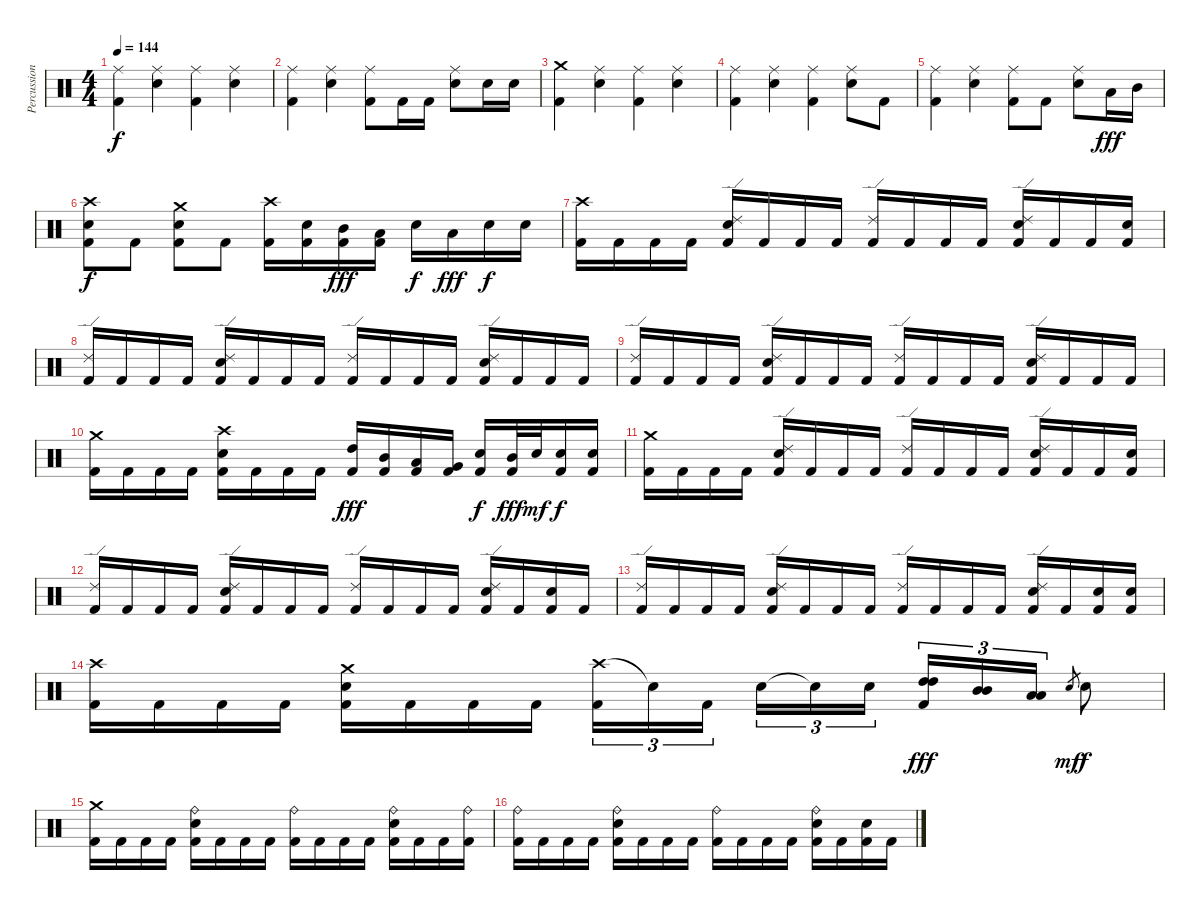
\track ("Percussion" "Percussion") {instrument percussion}
\staff {score}
\articulation defaults
\ts (4 4)
\tempo 144
\clef neutral
\ks c
("Ride (middle)" "Kick (hit) 2").4{dy f} ("Ride (middle)" "Snare (hit) 2").4 ("Ride (middle)" "Kick (hit) 2").4 ("Ride (middle)" "Snare (hit) 2").4 |
("Ride (middle)" "Kick (hit) 2").4 ("Ride (middle)" "Snare (hit) 2").4 ("Ride (middle)" "Kick (hit) 2").8 "Kick (hit) 2".16 "Kick (hit) 2".16 ("Ride (middle)" "Snare (hit) 2").8 "Snare (hit) 2".16 "Snare (hit) 2".16 |
("Crash medium (hit)" "Kick (hit) 2").4 ("Ride (middle)" "Snare (hit) 2").4 ("Ride (middle)" "Kick (hit) 2").4 ("Ride (middle)" "Snare (hit) 2").4 |
("Ride (middle)" "Kick (hit) 2").4 ("Ride (middle)" "Snare (hit) 2").4 ("Ride (middle)" "Kick (hit) 2").4 ("Ride (middle)" "Snare (hit) 2").8 "Kick (hit) 2".8 |
("Ride (middle)" "Kick (hit) 2").4 ("Ride (middle)" "Snare (hit) 2").4 ("Ride (middle)" "Kick (hit) 2").8 "Kick (hit) 2".8 ("Ride (middle)" "Snare (hit) 2").8 "Low Tom (hit)".16{dy fff} "Mid Tom (hit)".16 |
("Crash high (hit)" "Snare (hit) 2" "Kick (hit) 2").8{dy f} "Kick (hit) 2".8 ("Crash medium (hit)" "Snare (hit) 2" "Kick (hit) 2").8 "Kick (hit) 2".8 ("Crash high (hit)" "Kick (hit) 2").16 ("Snare (hit) 2" "Kick (hit) 2").16 ("Mid Tom (hit)" "Kick (hit) 2").16{dy fff} ("Low Tom (hit)" "Kick (hit) 2").16 "Snare (hit) 2".16{dy f} "Low Tom (hit)".16{dy fff} "Snare (hit) 2".16{dy f} "Snare (hit) 2".16 |
\section ("" "")
("Crash high (hit)" "Kick (hit) 2").16 "Kick (hit) 2".16 "Kick (hit) 2".16 "Kick (hit) 2".16 ("Ride (edge) 2" "Snare (hit) 2" "Kick (hit) 2").16 "Kick (hit) 2".16 "Kick (hit) 2".16 "Kick (hit) 2".16 ("Ride (edge) 2" "Kick (hit) 2").16 "Kick (hit) 2".16 "Kick (hit) 2".16 "Kick (hit) 2".16 ("Ride (edge) 2" "Snare (hit) 2" "Kick (hit) 2").16 "Kick (hit) 2".16 "Kick (hit) 2".16 ("Snare (hit) 2" "Kick (hit) 2").16 |
("Ride (edge) 2" "Kick (hit) 2").16 "Kick (hit) 2".16 "Kick (hit) 2".16 "Kick (hit) 2".16 ("Ride (edge) 2" "Snare (hit) 2" "Kick (hit) 2").16 "Kick (hit) 2".16 "Kick (hit) 2".16 "Kick (hit) 2".16 ("Ride (edge) 2" "Kick (hit) 2").16 "Kick (hit) 2".16 "Kick (hit) 2".16 "Kick (hit) 2".16 ("Ride (edge) 2" "Snare (hit) 2" "Kick (hit) 2").16 "Kick (hit) 2".16 "Kick (hit) 2".16 "Kick (hit) 2".16 |
("Ride (edge) 2" "Kick (hit) 2").16 "Kick (hit) 2".16 "Kick (hit) 2".16 "Kick (hit) 2".16 ("Ride (edge) 2" "Snare (hit) 2" "Kick (hit) 2").16 "Kick (hit) 2".16 "Kick (hit) 2".16 "Kick (hit) 2".16 ("Ride (edge) 2" "Kick (hit) 2").16 "Kick (hit) 2".16 "Kick (hit) 2".16 "Kick (hit) 2".16 ("Ride (edge) 2" "Snare (hit) 2" "Kick (hit) 2").16 "Kick (hit) 2".16 "Kick (hit) 2".16 "Kick (hit) 2".16 |
("Crash medium (hit)" "Kick (hit) 2").16 "Kick (hit) 2".16 "Kick (hit) 2".16 "Kick (hit) 2".16 ("Crash high (hit)" "Snare (hit) 2" "Kick (hit) 2").16 "Kick (hit) 2".16 "Kick (hit) 2".16 "Kick (hit) 2".16 ("High Tom (hit)" "Kick (hit) 2").16{dy fff} ("Mid Tom (hit)" "Kick (hit) 2").16 ("Low Tom (hit)" "Kick (hit) 2").16 ("Very Low Tom (hit)" "Kick (hit) 2").16 ("Snare (hit) 2" "Kick (hit) 2").16{dy f} ("Mid Tom (hit)" "Kick (hit) 2").32{dy fff} "Snare (hit) 2".32{dy mf} ("Snare (hit) 2" "Kick (hit) 2").16{dy f} ("Snare (hit) 2" "Kick (hit) 2").16 |
("Crash medium (hit)" "Kick (hit) 2").16 "Kick (hit) 2".16 "Kick (hit) 2".16 "Kick (hit) 2".16 ("Ride (edge) 2" "Snare (hit) 2" "Kick (hit) 2").16 "Kick (hit) 2".16 "Kick (hit) 2".16 "Kick (hit) 2".16 ("Ride (edge) 2" "Kick (hit) 2").16 "Kick (hit) 2".16 "Kick (hit) 2".16 "Kick (hit) 2".16 ("Ride (edge) 2" "Snare (hit) 2" "Kick (hit) 2").16 "Kick (hit) 2".16 "Kick (hit) 2".16 ("Snare (hit) 2" "Kick (hit) 2").16 |
("Ride (edge) 2" "Kick (hit) 2").16 "Kick (hit) 2".16 "Kick (hit) 2".16 "Kick (hit) 2".16 ("Ride (edge) 2" "Snare (hit) 2" "Kick (hit) 2").16 "Kick (hit) 2".16 "Kick (hit) 2".16 "Kick (hit) 2".16 ("Ride (edge) 2" "Kick (hit) 2").16 "Kick (hit) 2".16 "Kick (hit) 2".16 "Kick (hit) 2".16 ("Ride (edge) 2" "Snare (hit) 2" "Kick (hit) 2").16 "Kick (hit) 2".16 ("Snare (hit) 2" "Kick (hit) 2").16 "Kick (hit) 2".16 |
("Ride (edge) 2" "Kick (hit) 2").16 "Kick (hit) 2".16 "Kick (hit) 2".16 "Kick (hit) 2".16 ("Ride (edge) 2" "Snare (hit) 2" "Kick (hit) 2").16 "Kick (hit) 2".16 "Kick (hit) 2".16 "Kick (hit) 2".16 ("Ride (edge) 2" "Kick (hit) 2").16 "Kick (hit) 2".16 "Kick (hit) 2".16 "Kick (hit) 2".16 ("Ride (edge) 2" "Snare (hit) 2" "Kick (hit) 2").16 "Kick (hit) 2".16 ("Snare (hit) 2" "Kick (hit) 2").16 ("Snare (hit) 2" "Kick (hit) 2").16 |
("Crash high (hit)" "Kick (hit) 2").16 "Kick (hit) 2".16 "Kick (hit) 2".16 "Kick (hit) 2".16 ("Crash medium (hit)" "Snare (hit) 2" "Kick (hit) 2").16 "Kick (hit) 2".16 "Kick (hit) 2".16 "Kick (hit) 2".16 ("Crash high (hit)" "Kick (hit) 2").16{tu (3 2)} "Snare (hit)"{t}.16{tu (3 2)} "Kick (hit) 2".16{tu (3 2)} "Snare (hit) 2".16{tu (3 2)} "Snare (hit)"{t}.16{tu (3 2)} "Snare (hit) 2".16{tu (3 2)} ("High Tom (hit)" "High Tom (hit)" "Kick (hit) 2").16{tu (3 2) dy fff} ("Mid Tom (hit)" "Mid Tom (hit)").16{tu (3 2)} ("Low Tom (hit)" "Low Tom (hit)").16{tu (3 2)} "Snare (hit) 2".8{gr dy mf} "Snare (hit) 2".8{dy f} |
\section ("" "")
("Crash medium (hit)" "Kick (hit) 2").16 "Kick (hit) 2".16 "Kick (hit) 2".16 "Kick (hit) 2".16 ("Ride (bell)" "Snare (hit) 2" "Kick (hit) 2").16 "Kick (hit) 2".16 "Kick (hit) 2".16 "Kick (hit) 2".16 ("Ride (bell)" "Kick (hit) 2").16 "Kick (hit) 2".16 "Kick (hit) 2".16 "Kick (hit) 2".16 ("Ride (bell)" "Snare (hit) 2" "Kick (hit) 2").16 "Kick (hit) 2".16 "Kick (hit) 2".16 ("Ride (bell)" "Kick (hit) 2").16 |
("Ride (bell)" "Kick (hit) 2").16 "Kick (hit) 2".16 "Kick (hit) 2".16 "Kick (hit) 2".16 ("Ride (bell)" "Snare (hit) 2" "Kick (hit) 2").16 "Kick (hit) 2".16 "Kick (hit) 2".16 "Kick (hit) 2".16 ("Ride (bell)" "Kick (hit) 2").16 "Kick (hit) 2".16 "Kick (hit) 2".16 "Kick (hit) 2".16 ("Ride (bell)" "Snare (hit) 2" "Kick (hit) 2").16 "Kick (hit) 2".16 ("Snare (hit) 2" "Kick (hit) 2").16 "Kick (hit) 2".16
